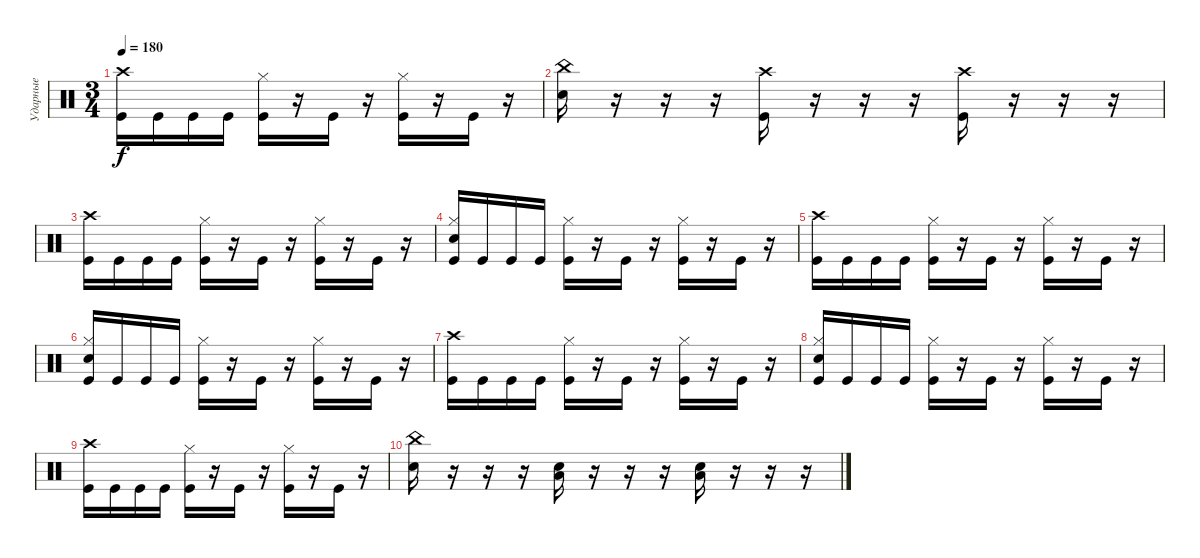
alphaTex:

\track ("Ударные" "Ударные") {instrument percussion}
\staff {score}
\articulation defaults
\ts (3 4)
\tempo 180
\clef neutral
\ks c
("Crash high (hit)" "Kick (hit)").16{dy f} "Kick (hit)".16 "Kick (hit)".16 "Kick (hit)".16 ("Hi-Hat (closed)" "Kick (hit)").16 r.16 "Kick (hit)".16 r.16 ("Hi-Hat (closed)" "Kick (hit)").16 r.16 "Kick (hit)".16 r.16 |
("China (hit)" "Electric Snare (hit)").16 r.16 r.16 r.16 ("Crash high (hit)" "Kick (hit)").16 r.16 r.16 r.16 ("Crash high (hit)" "Kick (hit)").16 r.16 r.16 r.16 |
("Crash high (hit)" "Kick (hit)").16 "Kick (hit)".16 "Kick (hit)".16 "Kick (hit)".16 ("Hi-Hat (closed)" "Kick (hit)").16 r.16 "Kick (hit)".16 r.16 ("Hi-Hat (closed)" "Kick (hit)").16 r.16 "Kick (hit)".16 r.16 |
("Hi-Hat (closed)" "Electric Snare (hit)" "Kick (hit)").16 "Kick (hit)".16 "Kick (hit)".16 "Kick (hit)".16 ("Hi-Hat (closed)" "Kick (hit)").16 r.16 "Kick (hit)".16 r.16 ("Hi-Hat (closed)" "Kick (hit)").16 r.16 "Kick (hit)".16 r.16 |
("Crash high (hit)" "Kick (hit)").16 "Kick (hit)".16 "Kick (hit)".16 "Kick (hit)".16 ("Hi-Hat (closed)" "Kick (hit)").16 r.16 "Kick (hit)".16 r.16 ("Hi-Hat (closed)" "Kick (hit)").16 r.16 "Kick (hit)".16 r.16 |
("Hi-Hat (closed)" "Electric Snare (hit)" "Kick (hit)").16 "Kick (hit)".16 "Kick (hit)".16 "Kick (hit)".16 ("Hi-Hat (closed)" "Kick (hit)").16 r.16 "Kick (hit)".16 r.16 ("Hi-Hat (closed)" "Kick (hit)").16 r.16 "Kick (hit)".16 r.16 |
("Crash high (hit)" "Kick (hit)").16 "Kick (hit)".16 "Kick (hit)".16 "Kick (hit)".16 ("Hi-Hat (closed)" "Kick (hit)").16 r.16 "Kick (hit)".16 r.16 ("Hi-Hat (closed)" "Kick (hit)").16 r.16 "Kick (hit)".16 r.16 |
("Hi-Hat (closed)" "Electric Snare (hit)" "Kick (hit)").16 "Kick (hit)".16 "Kick (hit)".16 "Kick (hit)".16 ("Hi-Hat (closed)" "Kick (hit)").16 r.16 "Kick (hit)".16 r.16 ("Hi-Hat (closed)" "Kick (hit)").16 r.16 "Kick (hit)".16 r.16 |
("Crash high (hit)" "Kick (hit)").16 "Kick (hit)".16 "Kick (hit)".16 "Kick (hit)".16 ("Hi-Hat (closed)" "Kick (hit)").16 r.16 "Kick (hit)".16 r.16 ("Hi-Hat (closed)" "Kick (hit)").16 r.16 "Kick (hit)".16 r.16 |
("Electric Snare (hit)" "China (hit)").16 r.16 r.16 r.16 ("Electric Snare (hit)" "Low Floor Tom (hit)").16 r.16 r.16 r.16 ("Electric Snare (hit)" "Low Floor Tom (hit)").16 r.16 r.16 r.16
